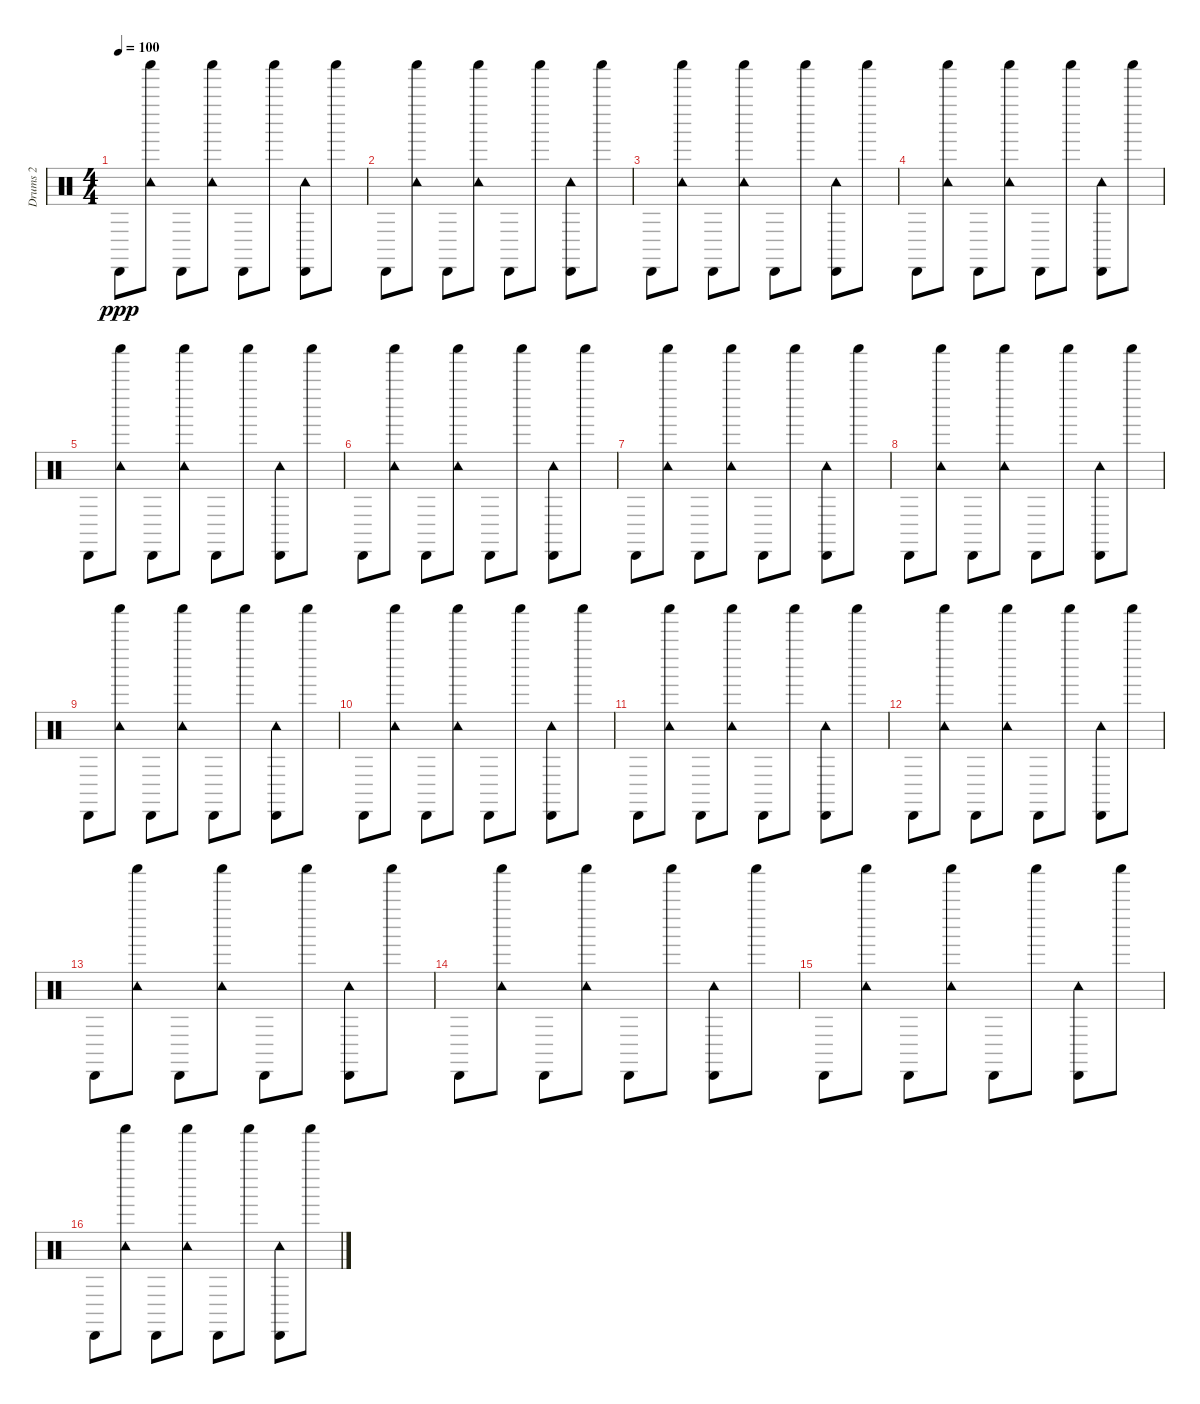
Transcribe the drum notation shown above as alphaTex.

\track ("Drums 2" "Drums 2") {instrument percussion}
\staff {score}
\articulation defaults
\ts (4 4)
\section ("" "")
\tempo 100
\clef neutral
\ks c "Cabasa (hit)".8{dy ppp}
("Tambourine (hit)" "Shaker (hit)").8 "Cabasa (hit)".8 ("Tambourine (hit)" "Shaker (hit)").8 "Cabasa (hit)".8 "Shaker (hit)".8 ("Tambourine (hit)" "Cabasa (hit)").8 "Shaker (hit)".8 |
"Cabasa (hit)".8 ("Tambourine (hit)" "Shaker (hit)").8 "Cabasa (hit)".8 ("Tambourine (hit)" "Shaker (hit)").8 "Cabasa (hit)".8 "Shaker (hit)".8 ("Tambourine (hit)" "Cabasa (hit)").8 "Shaker (hit)".8 |
"Cabasa (hit)".8 ("Tambourine (hit)" "Shaker (hit)").8 "Cabasa (hit)".8 ("Tambourine (hit)" "Shaker (hit)").8 "Cabasa (hit)".8 "Shaker (hit)".8 ("Tambourine (hit)" "Cabasa (hit)").8 "Shaker (hit)".8 |
"Cabasa (hit)".8 ("Tambourine (hit)" "Shaker (hit)").8 "Cabasa (hit)".8 ("Tambourine (hit)" "Shaker (hit)").8 "Cabasa (hit)".8 "Shaker (hit)".8 ("Tambourine (hit)" "Cabasa (hit)").8 "Shaker (hit)".8 |
"Cabasa (hit)".8 ("Tambourine (hit)" "Shaker (hit)").8 "Cabasa (hit)".8 ("Tambourine (hit)" "Shaker (hit)").8 "Cabasa (hit)".8 "Shaker (hit)".8 ("Tambourine (hit)" "Cabasa (hit)").8 "Shaker (hit)".8 |
"Cabasa (hit)".8 ("Tambourine (hit)" "Shaker (hit)").8 "Cabasa (hit)".8 ("Tambourine (hit)" "Shaker (hit)").8 "Cabasa (hit)".8 "Shaker (hit)".8 ("Tambourine (hit)" "Cabasa (hit)").8 "Shaker (hit)".8 |
"Cabasa (hit)".8 ("Tambourine (hit)" "Shaker (hit)").8 "Cabasa (hit)".8 ("Tambourine (hit)" "Shaker (hit)").8 "Cabasa (hit)".8 "Shaker (hit)".8 ("Tambourine (hit)" "Cabasa (hit)").8 "Shaker (hit)".8 |
"Cabasa (hit)".8 ("Tambourine (hit)" "Shaker (hit)").8 "Cabasa (hit)".8 ("Tambourine (hit)" "Shaker (hit)").8 "Cabasa (hit)".8 "Shaker (hit)".8 ("Tambourine (hit)" "Cabasa (hit)").8 "Shaker (hit)".8 |
"Cabasa (hit)".8 ("Tambourine (hit)" "Shaker (hit)").8 "Cabasa (hit)".8 ("Tambourine (hit)" "Shaker (hit)").8 "Cabasa (hit)".8 "Shaker (hit)".8 ("Tambourine (hit)" "Cabasa (hit)").8 "Shaker (hit)".8 |
"Cabasa (hit)".8 ("Tambourine (hit)" "Shaker (hit)").8 "Cabasa (hit)".8 ("Tambourine (hit)" "Shaker (hit)").8 "Cabasa (hit)".8 "Shaker (hit)".8 ("Tambourine (hit)" "Cabasa (hit)").8 "Shaker (hit)".8 |
"Cabasa (hit)".8 ("Tambourine (hit)" "Shaker (hit)").8 "Cabasa (hit)".8 ("Tambourine (hit)" "Shaker (hit)").8 "Cabasa (hit)".8 "Shaker (hit)".8 ("Tambourine (hit)" "Cabasa (hit)").8 "Shaker (hit)".8 |
"Cabasa (hit)".8 ("Tambourine (hit)" "Shaker (hit)").8 "Cabasa (hit)".8 ("Tambourine (hit)" "Shaker (hit)").8 "Cabasa (hit)".8 "Shaker (hit)".8 ("Tambourine (hit)" "Cabasa (hit)").8 "Shaker (hit)".8 |
"Cabasa (hit)".8 ("Tambourine (hit)" "Shaker (hit)").8 "Cabasa (hit)".8 ("Tambourine (hit)" "Shaker (hit)").8 "Cabasa (hit)".8 "Shaker (hit)".8 ("Tambourine (hit)" "Cabasa (hit)").8 "Shaker (hit)".8 |
"Cabasa (hit)".8 ("Tambourine (hit)" "Shaker (hit)").8 "Cabasa (hit)".8 ("Tambourine (hit)" "Shaker (hit)").8 "Cabasa (hit)".8 "Shaker (hit)".8 ("Tambourine (hit)" "Cabasa (hit)").8 "Shaker (hit)".8 |
"Cabasa (hit)".8 ("Tambourine (hit)" "Shaker (hit)").8 "Cabasa (hit)".8 ("Tambourine (hit)" "Shaker (hit)").8 "Cabasa (hit)".8 "Shaker (hit)".8 ("Tambourine (hit)" "Cabasa (hit)").8 "Shaker (hit)".8 |
"Cabasa (hit)".8 ("Tambourine (hit)" "Shaker (hit)").8 "Cabasa (hit)".8 ("Tambourine (hit)" "Shaker (hit)").8 "Cabasa (hit)".8 "Shaker (hit)".8 ("Tambourine (hit)" "Cabasa (hit)").8 "Shaker (hit)".8
